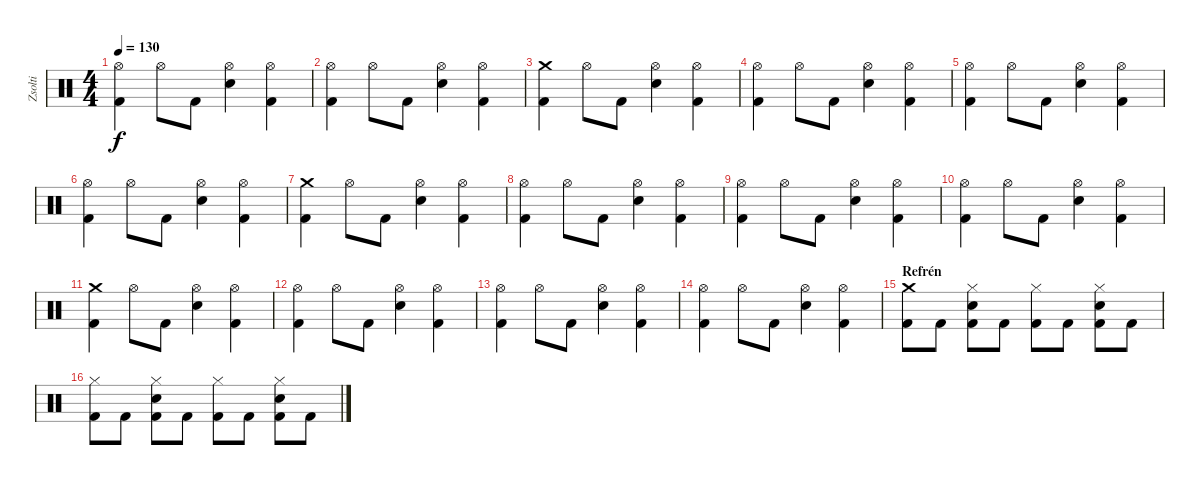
\track ("Zsolti" "Zsolti") {instrument percussion}
\staff {score}
\articulation defaults
\ts (4 4)
\tempo 130
\clef neutral
\ks c
("Hi-Hat (open)" "Kick (hit) 2").4{dy f} "Hi-Hat (open)".8 "Kick (hit) 2".8 ("Hi-Hat (open)" "Snare (hit) 2").4 ("Hi-Hat (open)" "Kick (hit) 2").4 |
("Hi-Hat (open)" "Kick (hit) 2").4 "Hi-Hat (open)".8 "Kick (hit) 2".8 ("Hi-Hat (open)" "Snare (hit) 2").4 ("Hi-Hat (open)" "Kick (hit) 2").4 |
("Crash medium (hit)" "Kick (hit) 2").4 "Hi-Hat (open)".8 "Kick (hit) 2".8 ("Hi-Hat (open)" "Snare (hit) 2").4 ("Hi-Hat (open)" "Kick (hit) 2").4 |
("Hi-Hat (open)" "Kick (hit) 2").4 "Hi-Hat (open)".8 "Kick (hit) 2".8 ("Hi-Hat (open)" "Snare (hit) 2").4 ("Hi-Hat (open)" "Kick (hit) 2").4 |
("Hi-Hat (open)" "Kick (hit) 2").4 "Hi-Hat (open)".8 "Kick (hit) 2".8 ("Hi-Hat (open)" "Snare (hit) 2").4 ("Hi-Hat (open)" "Kick (hit) 2").4 |
("Hi-Hat (open)" "Kick (hit) 2").4 "Hi-Hat (open)".8 "Kick (hit) 2".8 ("Hi-Hat (open)" "Snare (hit) 2").4 ("Hi-Hat (open)" "Kick (hit) 2").4 |
("Crash medium (hit)" "Kick (hit) 2").4 "Hi-Hat (open)".8 "Kick (hit) 2".8 ("Hi-Hat (open)" "Snare (hit) 2").4 ("Hi-Hat (open)" "Kick (hit) 2").4 |
("Hi-Hat (open)" "Kick (hit) 2").4 "Hi-Hat (open)".8 "Kick (hit) 2".8 ("Hi-Hat (open)" "Snare (hit) 2").4 ("Hi-Hat (open)" "Kick (hit) 2").4 |
("Hi-Hat (open)" "Kick (hit) 2").4 "Hi-Hat (open)".8 "Kick (hit) 2".8 ("Hi-Hat (open)" "Snare (hit) 2").4 ("Hi-Hat (open)" "Kick (hit) 2").4 |
("Hi-Hat (open)" "Kick (hit) 2").4 "Hi-Hat (open)".8 "Kick (hit) 2".8 ("Hi-Hat (open)" "Snare (hit) 2").4 ("Hi-Hat (open)" "Kick (hit) 2").4 |
("Crash medium (hit)" "Kick (hit) 2").4 "Hi-Hat (open)".8 "Kick (hit) 2".8 ("Hi-Hat (open)" "Snare (hit) 2").4 ("Hi-Hat (open)" "Kick (hit) 2").4 |
("Hi-Hat (open)" "Kick (hit) 2").4 "Hi-Hat (open)".8 "Kick (hit) 2".8 ("Hi-Hat (open)" "Snare (hit) 2").4 ("Hi-Hat (open)" "Kick (hit) 2").4 |
("Hi-Hat (open)" "Kick (hit) 2").4 "Hi-Hat (open)".8 "Kick (hit) 2".8 ("Hi-Hat (open)" "Snare (hit) 2").4 ("Hi-Hat (open)" "Kick (hit) 2").4 |
("Hi-Hat (open)" "Kick (hit) 2").4 "Hi-Hat (open)".8 "Kick (hit) 2".8 ("Hi-Hat (open)" "Snare (hit) 2").4 ("Hi-Hat (open)" "Kick (hit) 2").4 |
\section ("" "Refrén")
("Crash medium (hit)" "Kick (hit) 2").8 "Kick (hit) 2".8 ("Hi-Hat (closed)" "Snare (hit) 2" "Kick (hit) 2").8 "Kick (hit) 2".8 ("Hi-Hat (closed)" "Kick (hit) 2").8 "Kick (hit) 2".8 ("Hi-Hat (closed)" "Snare (hit) 2" "Kick (hit) 2").8 "Kick (hit) 2".8 |
("Hi-Hat (closed)" "Kick (hit) 2").8 "Kick (hit) 2".8 ("Hi-Hat (closed)" "Snare (hit) 2" "Kick (hit) 2").8 "Kick (hit) 2".8 ("Hi-Hat (closed)" "Kick (hit) 2").8 "Kick (hit) 2".8 ("Hi-Hat (closed)" "Snare (hit) 2" "Kick (hit) 2").8 "Kick (hit) 2".8
